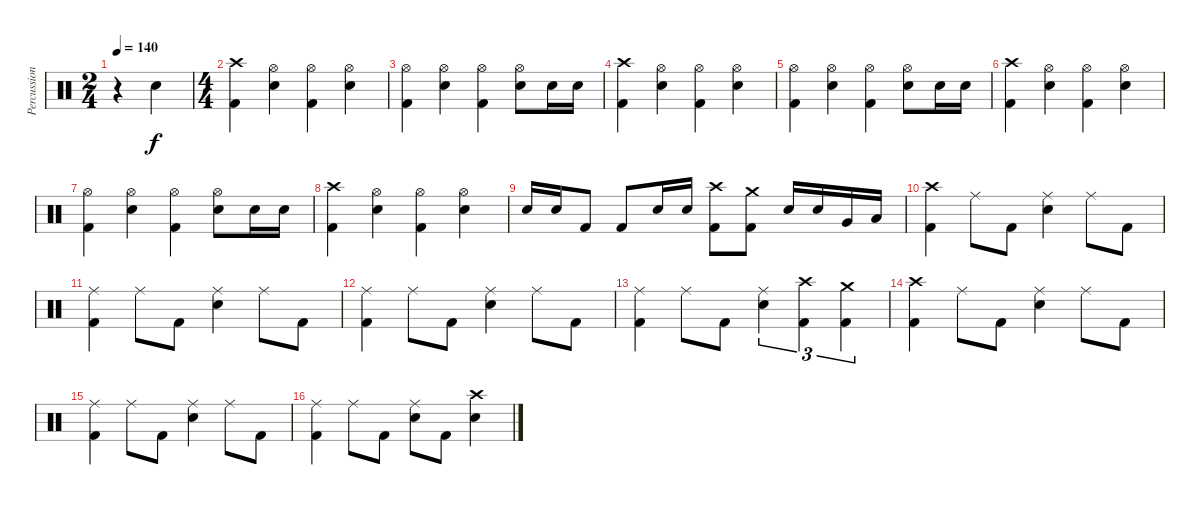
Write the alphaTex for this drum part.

\track ("Percussion" "Percussion") {instrument percussion}
\staff {score}
\articulation defaults
\ts (2 4)
\tempo 140
\clef neutral
\ks c
r.4{dy f} "Snare (hit) 2".4 |
\ts (4 4)
("Crash high (hit)" "Kick (hit) 2").4 ("Hi-Hat (open)" "Snare (hit) 2").4 ("Hi-Hat (open)" "Kick (hit) 2").4 ("Hi-Hat (open)" "Snare (hit) 2").4 |
("Hi-Hat (open)" "Kick (hit) 2").4 ("Hi-Hat (open)" "Snare (hit) 2").4 ("Hi-Hat (open)" "Kick (hit) 2").4 ("Hi-Hat (open)" "Snare (hit) 2").8 "Snare (hit) 2".16 "Snare (hit) 2".16 |
("Crash high (hit)" "Kick (hit) 2").4 ("Hi-Hat (open)" "Snare (hit) 2").4 ("Hi-Hat (open)" "Kick (hit) 2").4 ("Hi-Hat (open)" "Snare (hit) 2").4 |
("Hi-Hat (open)" "Kick (hit) 2").4 ("Hi-Hat (open)" "Snare (hit) 2").4 ("Hi-Hat (open)" "Kick (hit) 2").4 ("Hi-Hat (open)" "Snare (hit) 2").8 "Snare (hit) 2".16 "Snare (hit) 2".16 |
("Crash high (hit)" "Kick (hit) 2").4 ("Hi-Hat (open)" "Snare (hit) 2").4 ("Hi-Hat (open)" "Kick (hit) 2").4 ("Hi-Hat (open)" "Snare (hit) 2").4 |
("Hi-Hat (open)" "Kick (hit) 2").4 ("Hi-Hat (open)" "Snare (hit) 2").4 ("Hi-Hat (open)" "Kick (hit) 2").4 ("Hi-Hat (open)" "Snare (hit) 2").8 "Snare (hit) 2".16 "Snare (hit) 2".16 |
("Crash high (hit)" "Kick (hit) 2").4 ("Hi-Hat (open)" "Snare (hit) 2").4 ("Hi-Hat (open)" "Kick (hit) 2").4 ("Hi-Hat (open)" "Snare (hit) 2").4 |
"Snare (hit) 2".16 "Snare (hit) 2".16 "Kick (hit) 2".8 "Kick (hit) 2".8 "Snare (hit) 2".16 "Snare (hit) 2".16 ("Crash high (hit)" "Kick (hit) 2").8 ("Crash medium (hit)" "Kick (hit) 2").8 "Snare (hit) 2".16 "Snare (hit) 2".16 "Very Low Tom (hit)".16 "Low Floor Tom (hit)".16 |
("Crash high (hit)" "Kick (hit) 2").4 "Ride (middle)".8 "Kick (hit) 2".8 ("Ride (middle)" "Snare (hit) 2").4 "Ride (middle)".8 "Kick (hit) 2".8 |
("Ride (middle)" "Kick (hit) 2").4 "Ride (middle)".8 "Kick (hit) 2".8 ("Ride (middle)" "Snare (hit) 2").4 "Ride (middle)".8 "Kick (hit) 2".8 |
("Ride (middle)" "Kick (hit) 2").4 "Ride (middle)".8 "Kick (hit) 2".8 ("Ride (middle)" "Snare (hit) 2").4 "Ride (middle)".8 "Kick (hit) 2".8 |
("Ride (middle)" "Kick (hit) 2").4 "Ride (middle)".8 "Kick (hit) 2".8 ("Ride (middle)" "Snare (hit) 2").4{tu (3 2)} ("Crash high (hit)" "Kick (hit) 2").4{tu (3 2)} ("Crash medium (hit)" "Kick (hit) 2").4{tu (3 2)} |
("Crash high (hit)" "Kick (hit) 2").4 "Ride (middle)".8 "Kick (hit) 2".8 ("Ride (middle)" "Snare (hit) 2").4 "Ride (middle)".8 "Kick (hit) 2".8 |
("Ride (middle)" "Kick (hit) 2").4 "Ride (middle)".8 "Kick (hit) 2".8 ("Ride (middle)" "Snare (hit) 2").4 "Ride (middle)".8 "Kick (hit) 2".8 |
("Ride (middle)" "Kick (hit) 2").4 "Ride (middle)".8 "Kick (hit) 2".8 ("Ride (middle)" "Snare (hit) 2").8 "Kick (hit) 2".8 ("Crash high (hit)" "Snare (hit) 2").4
